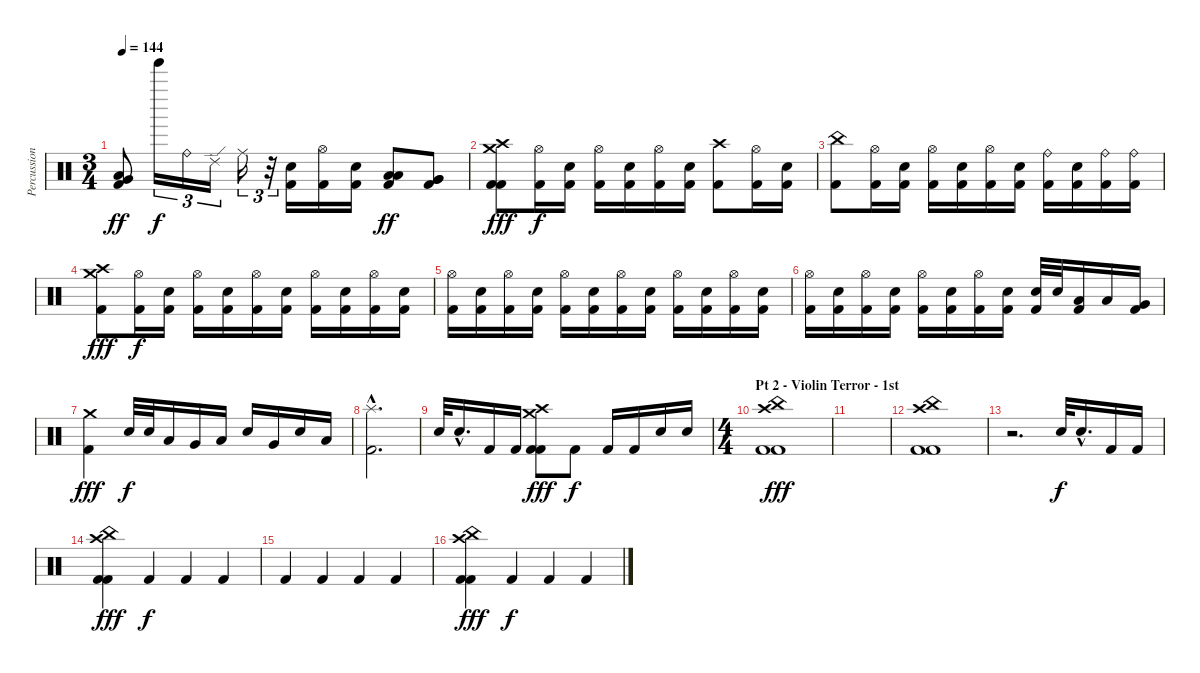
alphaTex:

\track ("Percussion" "Percussion") {instrument percussion}
\staff {score}
\articulation defaults
\ts (3 4)
\tempo 144
\clef neutral
\ks c
("Very Low Tom (hit)" "Low Tom (hit)" "Kick (hit) 2").8{dy ff} "Tinkle Bell (hit)".16{tu (3 2) dy f} "Ride (bell)".16{tu (3 2)} "Ride (edge) 2".16{tu (3 2)} "Ride (middle)".16{tu (3 2)} r.32{tu (3 2)} ("Electric Snare (hit)" "Kick (hit) 2").16 ("Hi-Hat (open)" "Kick (hit) 2").16 ("Electric Snare (hit)" "Kick (hit) 2").16 ("Low Tom (hit)" "Low Tom (hit)" "Kick (hit) 2").8{dy ff} ("Very Low Tom (hit)" "Very Low Tom (hit)" "Kick (hit) 2").8 |
("Crash high (hit)" "Crash medium (hit)" "Kick (hit) 2" "Kick (hit) 2").8{dy fff} ("Hi-Hat (open)" "Kick (hit) 2").16{dy f} ("Electric Snare (hit)" "Kick (hit) 2").16 ("Hi-Hat (open)" "Kick (hit) 2").16 ("Electric Snare (hit)" "Kick (hit) 2").16 ("Hi-Hat (open)" "Kick (hit) 2").16 ("Electric Snare (hit)" "Kick (hit) 2").16 ("Crash high (hit)" "Kick (hit) 2").8 ("Hi-Hat (open)" "Kick (hit) 2").16 ("Electric Snare (hit)" "Kick (hit) 2").16 |
("China (hit)" "Kick (hit) 2").8 ("Hi-Hat (open)" "Kick (hit) 2").16 ("Electric Snare (hit)" "Kick (hit) 2").16 ("Hi-Hat (open)" "Kick (hit) 2").16 ("Electric Snare (hit)" "Kick (hit) 2").16 ("Hi-Hat (open)" "Kick (hit) 2").16 ("Electric Snare (hit)" "Kick (hit) 2").16 ("Ride (bell)" "Kick (hit) 2").16 ("Electric Snare (hit)" "Kick (hit) 2").16 ("Ride (bell)" "Kick (hit) 2").16 ("Ride (bell)" "Kick (hit) 2").16 |
("Crash high (hit)" "Crash medium (hit)" "Kick (hit) 2").8{dy fff} ("Hi-Hat (open)" "Kick (hit) 2").16{dy f} ("Electric Snare (hit)" "Kick (hit) 2").16 ("Hi-Hat (open)" "Kick (hit) 2").16 ("Electric Snare (hit)" "Kick (hit) 2").16 ("Hi-Hat (open)" "Kick (hit) 2").16 ("Electric Snare (hit)" "Kick (hit) 2").16 ("Hi-Hat (open)" "Kick (hit) 2").16 ("Electric Snare (hit)" "Kick (hit) 2").16 ("Hi-Hat (open)" "Kick (hit) 2").16 ("Electric Snare (hit)" "Kick (hit) 2").16 |
("Hi-Hat (open)" "Kick (hit) 2").16 ("Electric Snare (hit)" "Kick (hit) 2").16 ("Hi-Hat (open)" "Kick (hit) 2").16 ("Electric Snare (hit)" "Kick (hit) 2").16 ("Hi-Hat (open)" "Kick (hit) 2").16 ("Electric Snare (hit)" "Kick (hit) 2").16 ("Hi-Hat (open)" "Kick (hit) 2").16 ("Electric Snare (hit)" "Kick (hit) 2").16 ("Hi-Hat (open)" "Kick (hit) 2").16 ("Electric Snare (hit)" "Kick (hit) 2").16 ("Hi-Hat (open)" "Kick (hit) 2").16 ("Electric Snare (hit)" "Kick (hit) 2").16 |
("Hi-Hat (open)" "Kick (hit) 2").16 ("Electric Snare (hit)" "Kick (hit) 2").16 ("Hi-Hat (open)" "Kick (hit) 2").16 ("Electric Snare (hit)" "Kick (hit) 2").16 ("Hi-Hat (open)" "Kick (hit) 2").16 ("Electric Snare (hit)" "Kick (hit) 2").16 ("Hi-Hat (open)" "Kick (hit) 2").16 ("Electric Snare (hit)" "Kick (hit) 2").16 ("Electric Snare (hit)" "Kick (hit) 2").32 "Electric Snare (hit)".32 ("Low Tom (hit)" "Kick (hit) 2").16 "Low Tom (hit)".16 ("Very Low Tom (hit)" "Kick (hit) 2").16 |
("Crash medium (hit)" "Kick (hit) 2").4{dy fff} "Electric Snare (hit)".32{dy f balance 0} "Electric Snare (hit)".32 "Low Tom (hit)".16 "Very Low Tom (hit)".16 "Low Tom (hit)".16 "Electric Snare (hit)".16{balance 16} "Very Low Tom (hit)".16 "Electric Snare (hit)".16 "Low Tom (hit)".16 |
("Splash (hit)"{hac} "Kick (hit) 2"{hac}).2{d balance 8} |
"Snare (hit) 2".32 "Snare (hit) 2"{hac}.16{d} "Kick (hit) 2".16 "Kick (hit) 2".16 ("Crash medium (hit)" "Crash high (hit)" "Kick (hit) 2" "Kick (hit) 2").8{dy fff} "Kick (hit) 2".8{dy f} "Kick (hit) 2".16 "Kick (hit) 2".16 "Snare (hit) 2".16 "Snare (hit) 2".16 |
\ts (4 4)
\section ("" "Pt 2 - Violin Terror - 1st")
("Crash high (hit)" "China (hit)" "Kick (hit) 2" "Kick (hit) 2").1{dy fff} |
|
("Crash high (hit)" "China (hit)" "Kick (hit) 2" "Kick (hit) 2").1 |
r.2{d} "Snare (hit) 2".32{dy f} "Snare (hit) 2"{hac}.16{d} "Kick (hit) 2".16 "Kick (hit) 2".16 |
("Crash high (hit)" "China (hit)" "Kick (hit) 2" "Kick (hit) 2").4{dy fff} "Kick (hit) 2".4{dy f} "Kick (hit) 2".4 "Kick (hit) 2".4 |
"Kick (hit) 2".4 "Kick (hit) 2".4 "Kick (hit) 2".4 "Kick (hit) 2".4 |
("Crash high (hit)" "China (hit)" "Kick (hit) 2" "Kick (hit) 2").4{dy fff} "Kick (hit) 2".4{dy f} "Kick (hit) 2".4 "Kick (hit) 2".4
